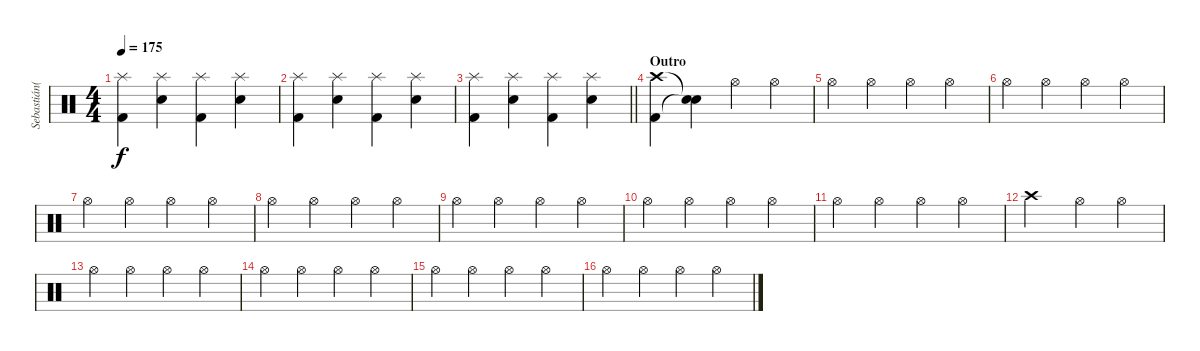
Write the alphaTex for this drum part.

\track ("Sebastián(Bateria)" "Sebastián(") {instrument percussion}
\staff {score}
\articulation defaults
\ts (4 4)
\tempo 175
\clef neutral
\ks c
("Splash (hit)" "Kick (hit) 2").4{dy f} ("Snare (hit) 2" "Splash (hit)").4 ("Splash (hit)" "Kick (hit) 2").4 ("Snare (hit) 2" "Splash (hit)").4 |
("Splash (hit)" "Kick (hit) 2").4 ("Snare (hit) 2" "Splash (hit)").4 ("Splash (hit)" "Kick (hit) 2").4 ("Snare (hit) 2" "Splash (hit)").4 |
\barLineRight lightlight
("Splash (hit)" "Kick (hit) 2").4 ("Snare (hit) 2" "Splash (hit)").4 ("Splash (hit)" "Kick (hit) 2").4 ("Snare (hit) 2" "Splash (hit)").4 |
\section ("" "Outro")
("Crash high (hit)" "Kick (hit) 2").4 ("Snare (hit)"{t} "Snare (hit)"{t}).4 "Hi-Hat (open)".4{volume 5} "Hi-Hat (open)".4 |
"Hi-Hat (open)".4 "Hi-Hat (open)".4 "Hi-Hat (open)".4 "Hi-Hat (open)".4 |
"Hi-Hat (open)".4 "Hi-Hat (open)".4 "Hi-Hat (open)".4 "Hi-Hat (open)".4 |
"Hi-Hat (open)".4 "Hi-Hat (open)".4 "Hi-Hat (open)".4 "Hi-Hat (open)".4 |
"Hi-Hat (open)".4 "Hi-Hat (open)".4 "Hi-Hat (open)".4 "Hi-Hat (open)".4 |
"Hi-Hat (open)".4 "Hi-Hat (open)".4 "Hi-Hat (open)".4 "Hi-Hat (open)".4 |
"Hi-Hat (open)".4 "Hi-Hat (open)".4 "Hi-Hat (open)".4 "Hi-Hat (open)".4 |
"Hi-Hat (open)".4 "Hi-Hat (open)".4 "Hi-Hat (open)".4 "Hi-Hat (open)".4 |
"Crash high (hit)".2 "Hi-Hat (open)".4 "Hi-Hat (open)".4 |
"Hi-Hat (open)".4 "Hi-Hat (open)".4 "Hi-Hat (open)".4 "Hi-Hat (open)".4 |
"Hi-Hat (open)".4 "Hi-Hat (open)".4 "Hi-Hat (open)".4 "Hi-Hat (open)".4 |
"Hi-Hat (open)".4 "Hi-Hat (open)".4 "Hi-Hat (open)".4 "Hi-Hat (open)".4 |
"Hi-Hat (open)".4{volume 13} "Hi-Hat (open)".4 "Hi-Hat (open)".4 "Hi-Hat (open)".4
